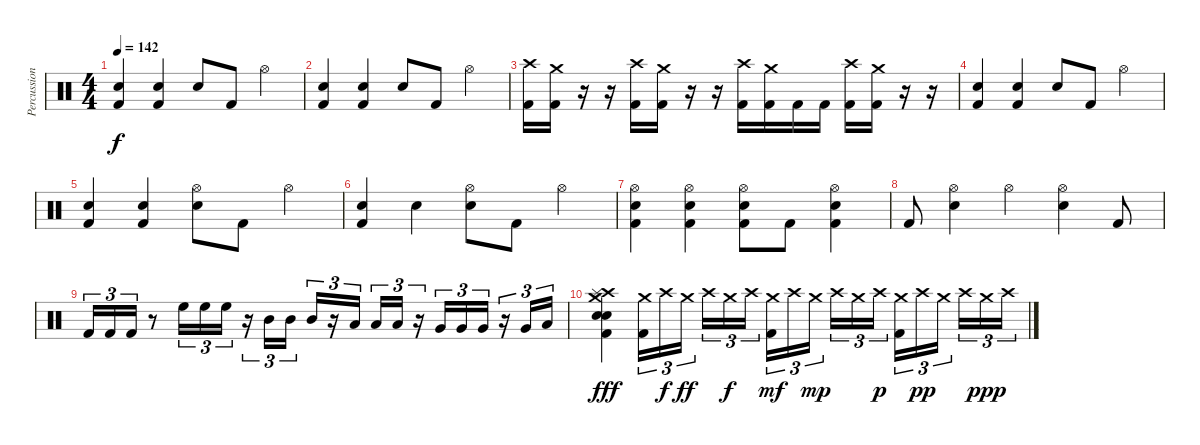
\track ("Percussion" "Percussion") {instrument percussion}
\staff {score}
\articulation defaults
\ts (4 4)
\tempo 142
\clef neutral
\ks c
("Snare (hit) 2" "Kick (hit) 2").4{dy f} ("Snare (hit) 2" "Kick (hit) 2").4 "Snare (hit) 2".8 "Kick (hit) 2".8 "Hi-Hat (open)".4 |
("Snare (hit) 2" "Kick (hit) 2").4 ("Snare (hit) 2" "Kick (hit) 2").4 "Snare (hit) 2".8 "Kick (hit) 2".8 "Hi-Hat (open)".4 |
("Crash high (hit)" "Kick (hit) 2").16 ("Crash medium (hit)" "Kick (hit) 2").16 r.16 r.16 ("Crash high (hit)" "Kick (hit) 2").16 ("Crash medium (hit)" "Kick (hit) 2").16 r.16 r.16 ("Crash high (hit)" "Kick (hit) 2").16 ("Crash medium (hit)" "Kick (hit) 2").16 "Kick (hit) 2".16 "Kick (hit) 2".16 ("Crash high (hit)" "Kick (hit) 2").16 ("Crash medium (hit)" "Kick (hit) 2").16 r.16 r.16 |
("Snare (hit) 2" "Kick (hit) 2").4 ("Snare (hit) 2" "Kick (hit) 2").4 "Snare (hit) 2".8 "Kick (hit) 2".8 "Hi-Hat (open)".4 |
("Snare (hit) 2" "Kick (hit) 2").4 ("Snare (hit) 2" "Kick (hit) 2").4 ("Snare (hit) 2" "Hi-Hat (open)").8 "Kick (hit) 2".8 "Hi-Hat (open)".4 |
("Snare (hit) 2" "Kick (hit) 2").4 "Snare (hit) 2".4 ("Snare (hit) 2" "Hi-Hat (open)").8 "Kick (hit) 2".8 "Hi-Hat (open)".4 |
("Snare (hit) 2" "Hi-Hat (open)" "Kick (hit) 2").4 ("Snare (hit) 2" "Hi-Hat (open)" "Kick (hit) 2").4 ("Snare (hit) 2" "Hi-Hat (open)" "Kick (hit) 2").8 "Kick (hit) 2".8 ("Hi-Hat (open)" "Snare (hit) 2" "Kick (hit) 2").4 |
"Kick (hit) 2".8 ("Hi-Hat (open)" "Snare (hit) 2").4 "Hi-Hat (open)".4 ("Hi-Hat (open)" "Snare (hit) 2").4 "Kick (hit) 2".8 |
"Kick (hit) 2".16{tu (3 2)} "Kick (hit) 2".16{tu (3 2)} "Kick (hit) 2".16{tu (3 2)} r.8 "High Floor Tom (hit)".16{tu (3 2)} "High Floor Tom (hit)".16{tu (3 2)} "High Floor Tom (hit)".16{tu (3 2)} r.16{tu (3 2)} "Mid Tom (hit)".16{tu (3 2)} "Mid Tom (hit)".16{tu (3 2)} "Mid Tom (hit)".16{tu (3 2)} r.16{tu (3 2)} "Low Tom (hit)".16{tu (3 2)} "Low Tom (hit)".16{tu (3 2)} "Low Tom (hit)".16{tu (3 2)} r.16{tu (3 2)} "Very Low Tom (hit)".16{tu (3 2)} "Very Low Tom (hit)".16{tu (3 2)} "Very Low Tom (hit)".16{tu (3 2)} r.16{tu (3 2)} "Very Low Tom (hit)".16{tu (3 2)} "Low Floor Tom (hit)".16{tu (3 2)} |
("Crash high (hit)" "Crash medium (hit)" "Splash (hit)" "Electric Snare (hit)" "Snare (hit) 2" "Kick (hit) 2").4{dy fff} ("Crash medium (hit)" "Kick (hit) 2").16{tu (3 2)} "Crash high (hit)".16{tu (3 2) dy f} "Crash medium (hit)".16{tu (3 2) dy ff} "Crash high (hit)".16{tu (3 2)} "Crash medium (hit)".16{tu (3 2) dy f} "Crash high (hit)".16{tu (3 2)} ("Crash medium (hit)" "Kick (hit) 2").16{tu (3 2) dy mf} "Crash high (hit)".16{tu (3 2)} "Crash medium (hit)".16{tu (3 2) dy mp} "Crash high (hit)".16{tu (3 2)} "Crash medium (hit)".16{tu (3 2)} "Crash high (hit)".16{tu (3 2) dy p} ("Crash medium (hit)" "Kick (hit) 2").16{tu (3 2)} "Crash high (hit)".16{tu (3 2) dy pp} "Crash medium (hit)".16{tu (3 2)} "Crash high (hit)".16{tu (3 2)} "Crash medium (hit)".16{tu (3 2) dy ppp} "Crash high (hit)".16{tu (3 2)}
